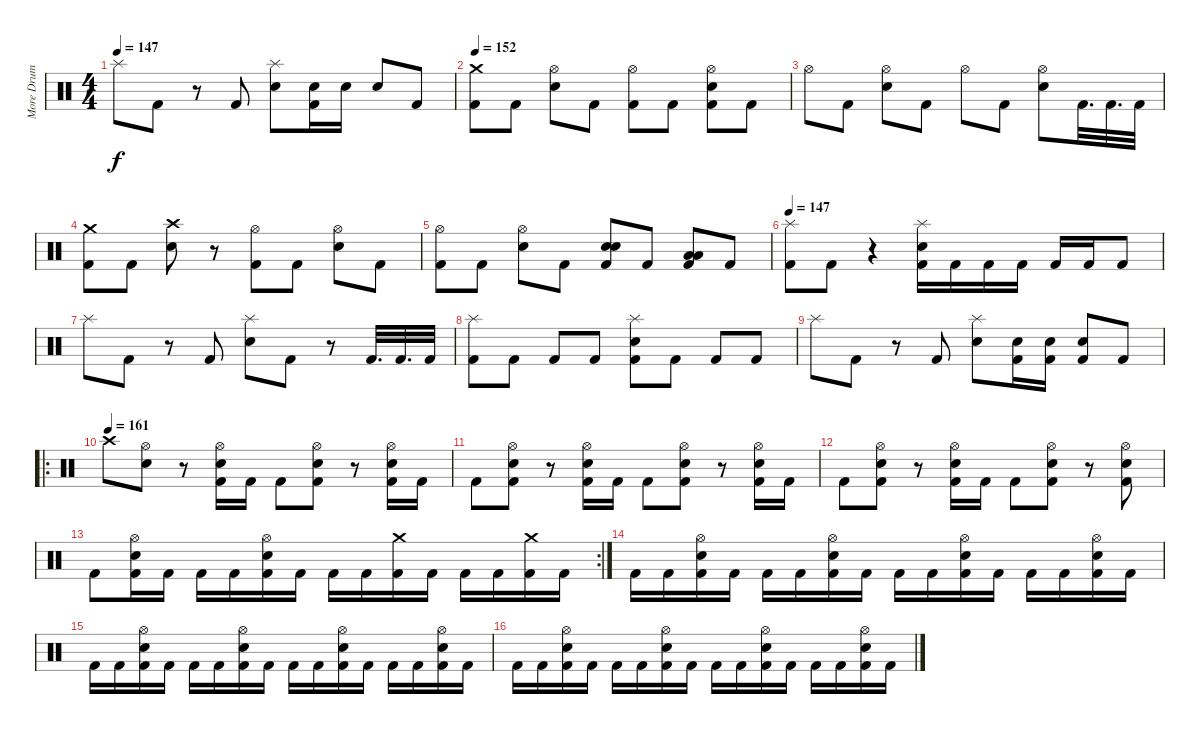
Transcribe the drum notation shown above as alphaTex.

\track ("More Drum Sound" "More Drum ") {instrument percussion}
\staff {score}
\articulation defaults
\ts (4 4)
\tempo 147
\clef neutral
\ks c "Splash (hit)".8{dy f} "Kick (hit) 2".8
r.8 "Kick (hit) 2".8 ("Splash (hit)" "Snare (hit) 2").8 ("Snare (hit) 2" "Kick (hit) 2").16 "Snare (hit) 2".16 "Snare (hit) 2".8 "Kick (hit) 2".8 |
\tempo 152
("Crash medium (hit)" "Kick (hit) 2").8 "Kick (hit) 2".8 ("Hi-Hat (open)" "Snare (hit) 2").8 "Kick (hit) 2".8 ("Hi-Hat (open)" "Kick (hit) 2").8 "Kick (hit) 2".8 ("Hi-Hat (open)" "Snare (hit) 2" "Kick (hit) 2").8 "Kick (hit) 2".8 |
"Hi-Hat (open)".8 "Kick (hit) 2".8 ("Hi-Hat (open)" "Snare (hit) 2").8 "Kick (hit) 2".8 "Hi-Hat (open)".8 "Kick (hit) 2".8 ("Hi-Hat (open)" "Snare (hit) 2").8 "Kick (hit) 2".32{d} "Kick (hit) 2".32{d} "Kick (hit) 2".32 |
("Crash medium (hit)" "Kick (hit) 2").8 "Kick (hit) 2".8 ("Crash high (hit)" "Snare (hit) 2").8 r.8 ("Hi-Hat (open)" "Kick (hit) 2").8 "Kick (hit) 2".8 ("Hi-Hat (open)" "Snare (hit) 2").8 "Kick (hit) 2".8 |
("Hi-Hat (open)" "Kick (hit) 2").8 "Kick (hit) 2".8 ("Hi-Hat (open)" "Snare (hit) 2").8 "Kick (hit) 2".8 ("Snare (hit) 2" "Snare (hit) 2" "Kick (hit) 2").8 "Kick (hit) 2".8 ("Low Floor Tom (hit)" "Low Floor Tom (hit)" "Kick (hit) 2").8 "Kick (hit) 2".8 |
\tempo 147
("Splash (hit)" "Kick (hit) 2").8 "Kick (hit) 2".8 r.4 ("Splash (hit)" "Snare (hit) 2" "Kick (hit) 2").16 "Kick (hit) 2".16 "Kick (hit) 2".16 "Kick (hit) 2".16 "Kick (hit) 2".16 "Kick (hit) 2".16 "Kick (hit) 2".8 |
"Splash (hit)".8 "Kick (hit) 2".8 r.8 "Kick (hit) 2".8 ("Splash (hit)" "Snare (hit) 2").8 "Kick (hit) 2".8 r.8 "Kick (hit) 2".32{d} "Kick (hit) 2".32{d} "Kick (hit) 2".32 |
("Splash (hit)" "Kick (hit) 2").8 "Kick (hit) 2".8 "Kick (hit) 2".8 "Kick (hit) 2".8 ("Splash (hit)" "Snare (hit) 2" "Kick (hit) 2").8 "Kick (hit) 2".8 "Kick (hit) 2".8 "Kick (hit) 2".8 |
"Splash (hit)".8 "Kick (hit) 2".8 r.8 "Kick (hit) 2".8 ("Splash (hit)" "Snare (hit) 2").8 ("Snare (hit) 2" "Kick (hit) 2").16 ("Snare (hit) 2" "Kick (hit) 2").16 ("Snare (hit) 2" "Kick (hit) 2").8 "Kick (hit) 2".8 |
\ro
\tempo (161)
"Crash high (hit)".8 ("Hi-Hat (open)" "Snare (hit) 2").8 r.8 ("Hi-Hat (open)" "Snare (hit) 2" "Kick (hit) 2").16 "Kick (hit) 2".16 "Kick (hit) 2".8 ("Hi-Hat (open)" "Snare (hit) 2" "Kick (hit) 2").8 r.8 ("Hi-Hat (open)" "Snare (hit) 2" "Kick (hit) 2").16 "Kick (hit) 2".16 |
"Kick (hit) 2".8 ("Hi-Hat (open)" "Snare (hit) 2" "Kick (hit) 2").8 r.8 ("Hi-Hat (open)" "Snare (hit) 2" "Kick (hit) 2").16 "Kick (hit) 2".16 "Kick (hit) 2".8 ("Hi-Hat (open)" "Snare (hit) 2" "Kick (hit) 2").8 r.8 ("Hi-Hat (open)" "Snare (hit) 2" "Kick (hit) 2").16 "Kick (hit) 2".16 |
"Kick (hit) 2".8 ("Hi-Hat (open)" "Snare (hit) 2" "Kick (hit) 2").8 r.8 ("Hi-Hat (open)" "Snare (hit) 2" "Kick (hit) 2").16 "Kick (hit) 2".16 "Kick (hit) 2".8 ("Hi-Hat (open)" "Snare (hit) 2" "Kick (hit) 2").8 r.8 ("Hi-Hat (open)" "Snare (hit) 2" "Kick (hit) 2").8 |
\rc 2 "Kick (hit) 2".8
("Hi-Hat (open)" "Snare (hit) 2" "Kick (hit) 2").16 "Kick (hit) 2".16 "Kick (hit) 2".16 "Kick (hit) 2".16 ("Hi-Hat (open)" "Snare (hit) 2" "Kick (hit) 2").16 "Kick (hit) 2".16 "Kick (hit) 2".16 "Kick (hit) 2".16 ("Crash medium (hit)" "Kick (hit) 2").16 "Kick (hit) 2".16 "Kick (hit) 2".16 "Kick (hit) 2".16 ("Crash medium (hit)" "Kick (hit) 2").16 "Kick (hit) 2".16 |
"Kick (hit) 2".16 "Kick (hit) 2".16 ("Hi-Hat (open)" "Snare (hit) 2" "Kick (hit) 2").16 "Kick (hit) 2".16 "Kick (hit) 2".16 "Kick (hit) 2".16 ("Hi-Hat (open)" "Snare (hit) 2" "Kick (hit) 2").16 "Kick (hit) 2".16 "Kick (hit) 2".16 "Kick (hit) 2".16 ("Hi-Hat (open)" "Snare (hit) 2" "Kick (hit) 2").16 "Kick (hit) 2".16 "Kick (hit) 2".16 "Kick (hit) 2".16 ("Hi-Hat (open)" "Snare (hit) 2" "Kick (hit) 2").16 "Kick (hit) 2".16 |
"Kick (hit) 2".16 "Kick (hit) 2".16 ("Hi-Hat (open)" "Snare (hit) 2" "Kick (hit) 2").16 "Kick (hit) 2".16 "Kick (hit) 2".16 "Kick (hit) 2".16 ("Hi-Hat (open)" "Snare (hit) 2" "Kick (hit) 2").16 "Kick (hit) 2".16 "Kick (hit) 2".16 "Kick (hit) 2".16 ("Hi-Hat (open)" "Snare (hit) 2" "Kick (hit) 2").16 "Kick (hit) 2".16 "Kick (hit) 2".16 "Kick (hit) 2".16 ("Hi-Hat (open)" "Snare (hit) 2" "Kick (hit) 2").16 "Kick (hit) 2".16 |
"Kick (hit) 2".16 "Kick (hit) 2".16 ("Hi-Hat (open)" "Snare (hit) 2" "Kick (hit) 2").16 "Kick (hit) 2".16 "Kick (hit) 2".16 "Kick (hit) 2".16 ("Hi-Hat (open)" "Snare (hit) 2" "Kick (hit) 2").16 "Kick (hit) 2".16 "Kick (hit) 2".16 "Kick (hit) 2".16 ("Hi-Hat (open)" "Snare (hit) 2" "Kick (hit) 2").16 "Kick (hit) 2".16 "Kick (hit) 2".16 "Kick (hit) 2".16 ("Hi-Hat (open)" "Snare (hit) 2" "Kick (hit) 2").16 "Kick (hit) 2".16
